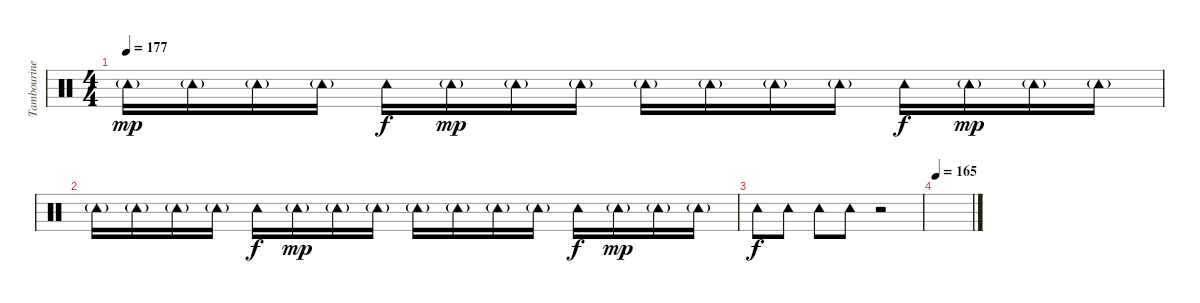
\track ("Tambourine" "Tambourine") {instrument percussion}
\staff {score}
\articulation defaults
\ts (4 4)
\tempo 177
\clef neutral
\ks c "Tambourine (hit)"{g}.16{dy mp} "Tambourine (hit)"{g}.16 "Tambourine (hit)"{g}.16 "Tambourine (hit)"{g}.16 "Tambourine (hit)".16{dy f} "Tambourine (hit)"{g}.16{dy mp} "Tambourine (hit)"{g}.16 "Tambourine (hit)"{g}.16 "Tambourine (hit)"{g}.16 "Tambourine (hit)"{g}.16 "Tambourine (hit)"{g}.16 "Tambourine (hit)"{g}.16 "Tambourine (hit)".16{dy f} "Tambourine (hit)"{g}.16{dy mp} "Tambourine (hit)"{g}.16 "Tambourine (hit)"{g}.16
|
"Tambourine (hit)"{g}.16 "Tambourine (hit)"{g}.16 "Tambourine (hit)"{g}.16 "Tambourine (hit)"{g}.16 "Tambourine (hit)".16{dy f} "Tambourine (hit)"{g}.16{dy mp} "Tambourine (hit)"{g}.16 "Tambourine (hit)"{g}.16 "Tambourine (hit)"{g}.16 "Tambourine (hit)"{g}.16 "Tambourine (hit)"{g}.16 "Tambourine (hit)"{g}.16 "Tambourine (hit)".16{dy f} "Tambourine (hit)"{g}.16{dy mp} "Tambourine (hit)"{g}.16 "Tambourine (hit)"{g}.16 |
"Tambourine (hit)".8{dy f} "Tambourine (hit)".8 "Tambourine (hit)".8 "Tambourine (hit)".8 r.2 |
\tempo 165
